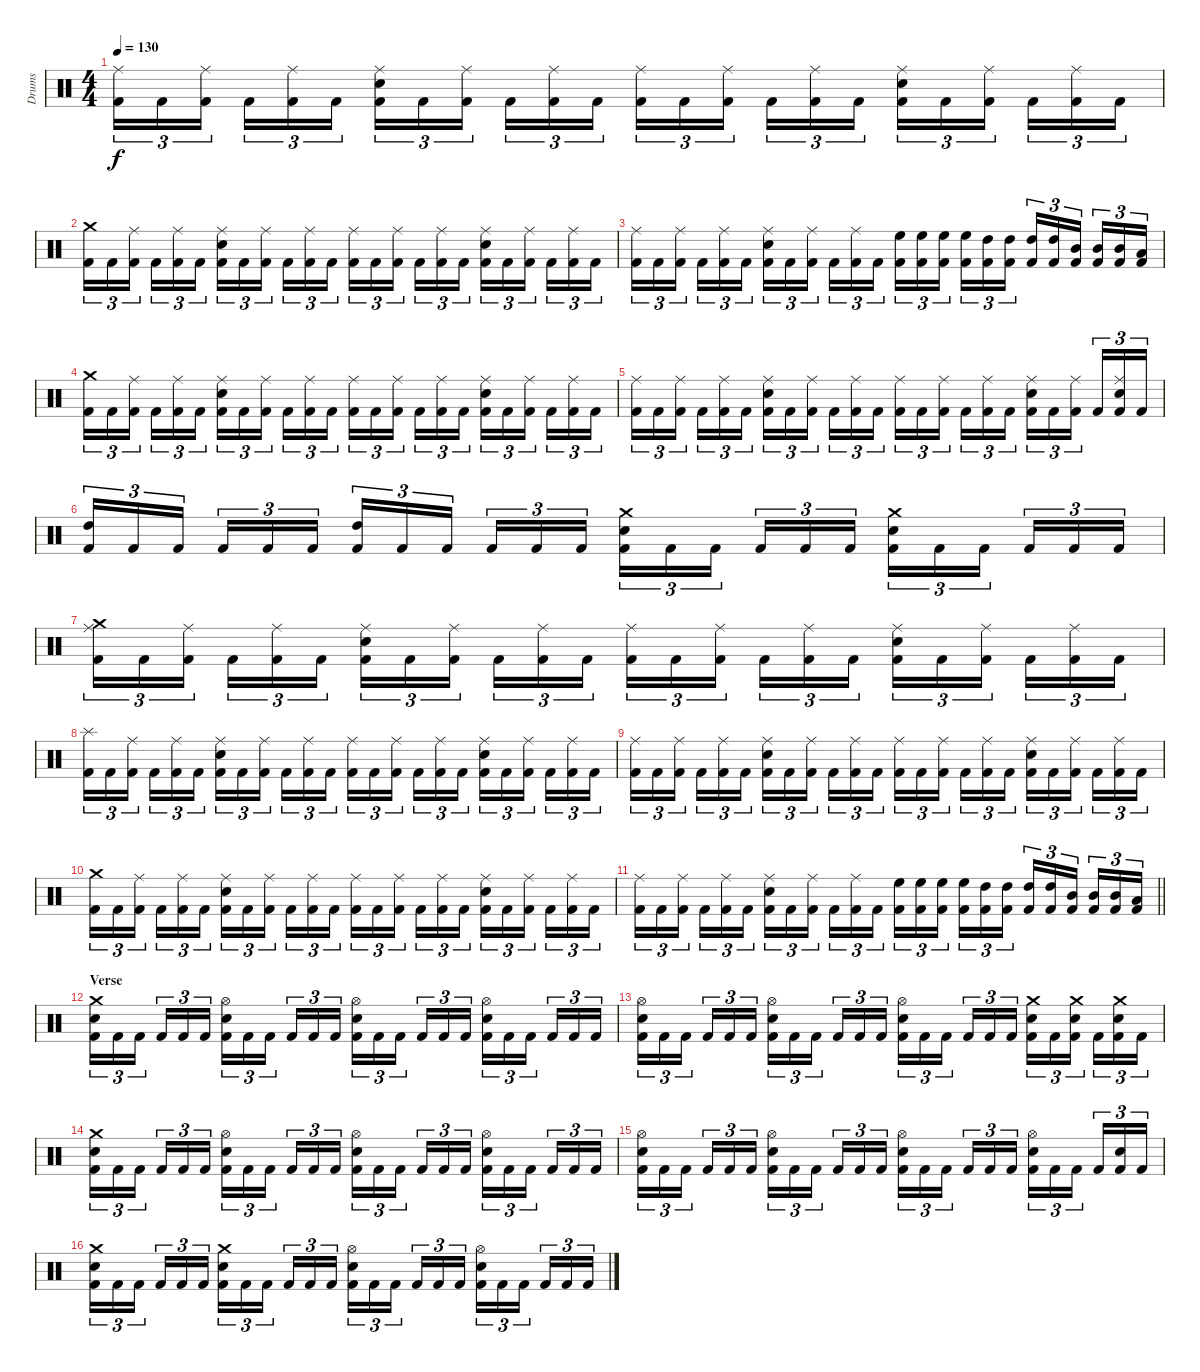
\track ("Drums" "Drums") {instrument percussion}
\staff {score}
\articulation defaults
\ts (4 4)
\tempo 130
\clef neutral
\ks c
("Kick (hit) 2" "Ride (middle)").16{tu (3 2) dy f} "Kick (hit) 2".16{tu (3 2)} ("Kick (hit) 2" "Ride (middle)").16{tu (3 2)} "Kick (hit) 2".16{tu (3 2)} ("Kick (hit) 2" "Ride (middle)").16{tu (3 2)} "Kick (hit) 2".16{tu (3 2)} ("Kick (hit) 2" "Electric Snare (hit)" "Ride (middle)").16{tu (3 2)} "Kick (hit) 2".16{tu (3 2)} ("Kick (hit) 2" "Ride (middle)").16{tu (3 2)} "Kick (hit) 2".16{tu (3 2)} ("Kick (hit) 2" "Ride (middle)").16{tu (3 2)} "Kick (hit) 2".16{tu (3 2)} ("Kick (hit) 2" "Ride (middle)").16{tu (3 2)} "Kick (hit) 2".16{tu (3 2)} ("Kick (hit) 2" "Ride (middle)").16{tu (3 2)} "Kick (hit) 2".16{tu (3 2)} ("Kick (hit) 2" "Ride (middle)").16{tu (3 2)} "Kick (hit) 2".16{tu (3 2)} ("Kick (hit) 2" "Electric Snare (hit)" "Ride (middle)").16{tu (3 2)} "Kick (hit) 2".16{tu (3 2)} ("Kick (hit) 2" "Ride (middle)").16{tu (3 2)} "Kick (hit) 2".16{tu (3 2)} ("Kick (hit) 2" "Ride (middle)").16{tu (3 2)} "Kick (hit) 2".16{tu (3 2)} |
("Kick (hit) 2" "Crash medium (hit)").16{tu (3 2)} "Kick (hit) 2".16{tu (3 2)} ("Kick (hit) 2" "Ride (middle)").16{tu (3 2)} "Kick (hit) 2".16{tu (3 2)} ("Kick (hit) 2" "Ride (middle)").16{tu (3 2)} "Kick (hit) 2".16{tu (3 2)} ("Kick (hit) 2" "Electric Snare (hit)" "Ride (middle)").16{tu (3 2)} "Kick (hit) 2".16{tu (3 2)} ("Kick (hit) 2" "Ride (middle)").16{tu (3 2)} "Kick (hit) 2".16{tu (3 2)} ("Kick (hit) 2" "Ride (middle)").16{tu (3 2)} "Kick (hit) 2".16{tu (3 2)} ("Kick (hit) 2" "Ride (middle)").16{tu (3 2)} "Kick (hit) 2".16{tu (3 2)} ("Kick (hit) 2" "Ride (middle)").16{tu (3 2)} "Kick (hit) 2".16{tu (3 2)} ("Kick (hit) 2" "Ride (middle)").16{tu (3 2)} "Kick (hit) 2".16{tu (3 2)} ("Kick (hit) 2" "Electric Snare (hit)" "Ride (middle)").16{tu (3 2)} "Kick (hit) 2".16{tu (3 2)} ("Kick (hit) 2" "Ride (middle)").16{tu (3 2)} "Kick (hit) 2".16{tu (3 2)} ("Kick (hit) 2" "Ride (middle)").16{tu (3 2)} "Kick (hit) 2".16{tu (3 2)} |
("Kick (hit) 2" "Ride (middle)").16{tu (3 2)} "Kick (hit) 2".16{tu (3 2)} ("Kick (hit) 2" "Ride (middle)").16{tu (3 2)} "Kick (hit) 2".16{tu (3 2)} ("Kick (hit) 2" "Ride (middle)").16{tu (3 2)} "Kick (hit) 2".16{tu (3 2)} ("Kick (hit) 2" "Electric Snare (hit)" "Ride (middle)").16{tu (3 2)} "Kick (hit) 2".16{tu (3 2)} ("Kick (hit) 2" "Ride (middle)").16{tu (3 2)} "Kick (hit) 2".16{tu (3 2)} ("Kick (hit) 2" "Ride (middle)").16{tu (3 2)} "Kick (hit) 2".16{tu (3 2)} ("Kick (hit) 2" "High Floor Tom (hit)").16{tu (3 2)} ("Kick (hit) 2" "High Floor Tom (hit)").16{tu (3 2)} ("Kick (hit) 2" "High Floor Tom (hit)").16{tu (3 2)} ("Kick (hit) 2" "High Floor Tom (hit)").16{tu (3 2)} ("Kick (hit) 2" "High Tom (hit)").16{tu (3 2)} ("Kick (hit) 2" "High Tom (hit)").16{tu (3 2)} ("Kick (hit) 2" "High Tom (hit)").16{tu (3 2)} ("Kick (hit) 2" "High Tom (hit)").16{tu (3 2)} ("Kick (hit) 2" "Mid Tom (hit)").16{tu (3 2)} ("Kick (hit) 2" "Mid Tom (hit)").16{tu (3 2)} ("Kick (hit) 2" "Mid Tom (hit)").16{tu (3 2)} ("Kick (hit) 2" "Low Tom (hit)").16{tu (3 2)} |
("Kick (hit) 2" "Crash medium (hit)").16{tu (3 2)} "Kick (hit) 2".16{tu (3 2)} ("Kick (hit) 2" "Ride (middle)").16{tu (3 2)} "Kick (hit) 2".16{tu (3 2)} ("Kick (hit) 2" "Ride (middle)").16{tu (3 2)} "Kick (hit) 2".16{tu (3 2)} ("Kick (hit) 2" "Electric Snare (hit)" "Ride (middle)").16{tu (3 2)} "Kick (hit) 2".16{tu (3 2)} ("Kick (hit) 2" "Ride (middle)").16{tu (3 2)} "Kick (hit) 2".16{tu (3 2)} ("Kick (hit) 2" "Ride (middle)").16{tu (3 2)} "Kick (hit) 2".16{tu (3 2)} ("Kick (hit) 2" "Ride (middle)").16{tu (3 2)} "Kick (hit) 2".16{tu (3 2)} ("Kick (hit) 2" "Ride (middle)").16{tu (3 2)} "Kick (hit) 2".16{tu (3 2)} ("Kick (hit) 2" "Ride (middle)").16{tu (3 2)} "Kick (hit) 2".16{tu (3 2)} ("Kick (hit) 2" "Electric Snare (hit)" "Ride (middle)").16{tu (3 2)} "Kick (hit) 2".16{tu (3 2)} ("Kick (hit) 2" "Ride (middle)").16{tu (3 2)} "Kick (hit) 2".16{tu (3 2)} ("Kick (hit) 2" "Ride (middle)").16{tu (3 2)} "Kick (hit) 2".16{tu (3 2)} |
("Kick (hit) 2" "Ride (middle)").16{tu (3 2)} "Kick (hit) 2".16{tu (3 2)} ("Kick (hit) 2" "Ride (middle)").16{tu (3 2)} "Kick (hit) 2".16{tu (3 2)} ("Kick (hit) 2" "Ride (middle)").16{tu (3 2)} "Kick (hit) 2".16{tu (3 2)} ("Kick (hit) 2" "Electric Snare (hit)" "Ride (middle)").16{tu (3 2)} "Kick (hit) 2".16{tu (3 2)} ("Kick (hit) 2" "Ride (middle)").16{tu (3 2)} "Kick (hit) 2".16{tu (3 2)} ("Kick (hit) 2" "Ride (middle)").16{tu (3 2)} "Kick (hit) 2".16{tu (3 2)} ("Kick (hit) 2" "Ride (middle)").16{tu (3 2)} "Kick (hit) 2".16{tu (3 2)} ("Kick (hit) 2" "Ride (middle)").16{tu (3 2)} "Kick (hit) 2".16{tu (3 2)} ("Kick (hit) 2" "Ride (middle)").16{tu (3 2)} "Kick (hit) 2".16{tu (3 2)} ("Kick (hit) 2" "Electric Snare (hit)" "Ride (middle)").16{tu (3 2)} "Kick (hit) 2".16{tu (3 2)} ("Kick (hit) 2" "Ride (middle)").16{tu (3 2)} "Kick (hit) 2".16{tu (3 2)} ("Kick (hit) 2" "Electric Snare (hit)" "Ride (middle)").16{tu (3 2)} "Kick (hit) 2".16{tu (3 2)} |
("Kick (hit) 2" "High Tom (hit)").16{tu (3 2)} "Kick (hit) 2".16{tu (3 2)} "Kick (hit) 2".16{tu (3 2)} "Kick (hit) 2".16{tu (3 2)} "Kick (hit) 2".16{tu (3 2)} "Kick (hit) 2".16{tu (3 2)} ("Kick (hit) 2" "High Tom (hit)").16{tu (3 2)} "Kick (hit) 2".16{tu (3 2)} "Kick (hit) 2".16{tu (3 2)} "Kick (hit) 2".16{tu (3 2)} "Kick (hit) 2".16{tu (3 2)} "Kick (hit) 2".16{tu (3 2)} ("Kick (hit) 2" "Electric Snare (hit)" "Crash medium (hit)").16{tu (3 2)} "Kick (hit) 2".16{tu (3 2)} "Kick (hit) 2".16{tu (3 2)} "Kick (hit) 2".16{tu (3 2)} "Kick (hit) 2".16{tu (3 2)} "Kick (hit) 2".16{tu (3 2)} ("Kick (hit) 2" "Electric Snare (hit)" "Crash medium (hit)").16{tu (3 2)} "Kick (hit) 2".16{tu (3 2)} "Kick (hit) 2".16{tu (3 2)} "Kick (hit) 2".16{tu (3 2)} "Kick (hit) 2".16{tu (3 2)} "Kick (hit) 2".16{tu (3 2)} |
("Kick (hit) 2" "Crash medium (hit)" "Ride (middle)").16{tu (3 2)} "Kick (hit) 2".16{tu (3 2)} ("Kick (hit) 2" "Ride (middle)").16{tu (3 2)} "Kick (hit) 2".16{tu (3 2)} ("Kick (hit) 2" "Ride (middle)").16{tu (3 2)} "Kick (hit) 2".16{tu (3 2)} ("Kick (hit) 2" "Electric Snare (hit)" "Ride (middle)").16{tu (3 2)} "Kick (hit) 2".16{tu (3 2)} ("Kick (hit) 2" "Ride (middle)").16{tu (3 2)} "Kick (hit) 2".16{tu (3 2)} ("Kick (hit) 2" "Ride (middle)").16{tu (3 2)} "Kick (hit) 2".16{tu (3 2)} ("Kick (hit) 2" "Ride (middle)").16{tu (3 2)} "Kick (hit) 2".16{tu (3 2)} ("Kick (hit) 2" "Ride (middle)").16{tu (3 2)} "Kick (hit) 2".16{tu (3 2)} ("Kick (hit) 2" "Ride (middle)").16{tu (3 2)} "Kick (hit) 2".16{tu (3 2)} ("Kick (hit) 2" "Electric Snare (hit)" "Ride (middle)").16{tu (3 2)} "Kick (hit) 2".16{tu (3 2)} ("Kick (hit) 2" "Ride (middle)").16{tu (3 2)} "Kick (hit) 2".16{tu (3 2)} ("Kick (hit) 2" "Ride (middle)").16{tu (3 2)} "Kick (hit) 2".16{tu (3 2)} |
("Kick (hit) 2" "Splash (hit)").16{tu (3 2)} "Kick (hit) 2".16{tu (3 2)} ("Kick (hit) 2" "Ride (middle)").16{tu (3 2)} "Kick (hit) 2".16{tu (3 2)} ("Kick (hit) 2" "Ride (middle)").16{tu (3 2)} "Kick (hit) 2".16{tu (3 2)} ("Kick (hit) 2" "Electric Snare (hit)" "Ride (middle)").16{tu (3 2)} "Kick (hit) 2".16{tu (3 2)} ("Kick (hit) 2" "Ride (middle)").16{tu (3 2)} "Kick (hit) 2".16{tu (3 2)} ("Kick (hit) 2" "Ride (middle)").16{tu (3 2)} "Kick (hit) 2".16{tu (3 2)} ("Kick (hit) 2" "Ride (middle)").16{tu (3 2)} "Kick (hit) 2".16{tu (3 2)} ("Kick (hit) 2" "Ride (middle)").16{tu (3 2)} "Kick (hit) 2".16{tu (3 2)} ("Kick (hit) 2" "Ride (middle)").16{tu (3 2)} "Kick (hit) 2".16{tu (3 2)} ("Kick (hit) 2" "Electric Snare (hit)" "Ride (middle)").16{tu (3 2)} "Kick (hit) 2".16{tu (3 2)} ("Kick (hit) 2" "Ride (middle)").16{tu (3 2)} "Kick (hit) 2".16{tu (3 2)} ("Kick (hit) 2" "Ride (middle)").16{tu (3 2)} "Kick (hit) 2".16{tu (3 2)} |
("Kick (hit) 2" "Ride (middle)").16{tu (3 2)} "Kick (hit) 2".16{tu (3 2)} ("Kick (hit) 2" "Ride (middle)").16{tu (3 2)} "Kick (hit) 2".16{tu (3 2)} ("Kick (hit) 2" "Ride (middle)").16{tu (3 2)} "Kick (hit) 2".16{tu (3 2)} ("Kick (hit) 2" "Electric Snare (hit)" "Ride (middle)").16{tu (3 2)} "Kick (hit) 2".16{tu (3 2)} ("Kick (hit) 2" "Ride (middle)").16{tu (3 2)} "Kick (hit) 2".16{tu (3 2)} ("Kick (hit) 2" "Ride (middle)").16{tu (3 2)} "Kick (hit) 2".16{tu (3 2)} ("Kick (hit) 2" "Ride (middle)").16{tu (3 2)} "Kick (hit) 2".16{tu (3 2)} ("Kick (hit) 2" "Ride (middle)").16{tu (3 2)} "Kick (hit) 2".16{tu (3 2)} ("Kick (hit) 2" "Ride (middle)").16{tu (3 2)} "Kick (hit) 2".16{tu (3 2)} ("Kick (hit) 2" "Electric Snare (hit)" "Ride (middle)").16{tu (3 2)} "Kick (hit) 2".16{tu (3 2)} ("Kick (hit) 2" "Ride (middle)").16{tu (3 2)} "Kick (hit) 2".16{tu (3 2)} ("Kick (hit) 2" "Ride (middle)").16{tu (3 2)} "Kick (hit) 2".16{tu (3 2)} |
("Kick (hit) 2" "Crash medium (hit)").16{tu (3 2)} "Kick (hit) 2".16{tu (3 2)} ("Kick (hit) 2" "Ride (middle)").16{tu (3 2)} "Kick (hit) 2".16{tu (3 2)} ("Kick (hit) 2" "Ride (middle)").16{tu (3 2)} "Kick (hit) 2".16{tu (3 2)} ("Kick (hit) 2" "Electric Snare (hit)" "Ride (middle)").16{tu (3 2)} "Kick (hit) 2".16{tu (3 2)} ("Kick (hit) 2" "Ride (middle)").16{tu (3 2)} "Kick (hit) 2".16{tu (3 2)} ("Kick (hit) 2" "Ride (middle)").16{tu (3 2)} "Kick (hit) 2".16{tu (3 2)} ("Kick (hit) 2" "Ride (middle)").16{tu (3 2)} "Kick (hit) 2".16{tu (3 2)} ("Kick (hit) 2" "Ride (middle)").16{tu (3 2)} "Kick (hit) 2".16{tu (3 2)} ("Kick (hit) 2" "Ride (middle)").16{tu (3 2)} "Kick (hit) 2".16{tu (3 2)} ("Kick (hit) 2" "Electric Snare (hit)" "Ride (middle)").16{tu (3 2)} "Kick (hit) 2".16{tu (3 2)} ("Kick (hit) 2" "Ride (middle)").16{tu (3 2)} "Kick (hit) 2".16{tu (3 2)} ("Kick (hit) 2" "Ride (middle)").16{tu (3 2)} "Kick (hit) 2".16{tu (3 2)} |
\barLineRight lightlight
("Kick (hit) 2" "Ride (middle)").16{tu (3 2)} "Kick (hit) 2".16{tu (3 2)} ("Kick (hit) 2" "Ride (middle)").16{tu (3 2)} "Kick (hit) 2".16{tu (3 2)} ("Kick (hit) 2" "Ride (middle)").16{tu (3 2)} "Kick (hit) 2".16{tu (3 2)} ("Kick (hit) 2" "Electric Snare (hit)" "Ride (middle)").16{tu (3 2)} "Kick (hit) 2".16{tu (3 2)} ("Kick (hit) 2" "Ride (middle)").16{tu (3 2)} "Kick (hit) 2".16{tu (3 2)} ("Kick (hit) 2" "Ride (middle)").16{tu (3 2)} "Kick (hit) 2".16{tu (3 2)} ("Kick (hit) 2" "High Floor Tom (hit)").16{tu (3 2)} ("Kick (hit) 2" "High Floor Tom (hit)").16{tu (3 2)} ("Kick (hit) 2" "High Floor Tom (hit)").16{tu (3 2)} ("Kick (hit) 2" "High Floor Tom (hit)").16{tu (3 2)} ("Kick (hit) 2" "High Tom (hit)").16{tu (3 2)} ("Kick (hit) 2" "High Tom (hit)").16{tu (3 2)} ("Kick (hit) 2" "High Tom (hit)").16{tu (3 2)} ("Kick (hit) 2" "High Tom (hit)").16{tu (3 2)} ("Kick (hit) 2" "Mid Tom (hit)").16{tu (3 2)} ("Kick (hit) 2" "Mid Tom (hit)").16{tu (3 2)} ("Kick (hit) 2" "Mid Tom (hit)").16{tu (3 2)} ("Kick (hit) 2" "Low Tom (hit)").16{tu (3 2)} |
\section ("" "Verse")
("Kick (hit) 2" "Electric Snare (hit)" "Crash medium (hit)").16{tu (3 2)} "Kick (hit) 2".16{tu (3 2)} "Kick (hit) 2".16{tu (3 2)} "Kick (hit) 2".16{tu (3 2)} "Kick (hit) 2".16{tu (3 2)} "Kick (hit) 2".16{tu (3 2)} ("Kick (hit) 2" "Electric Snare (hit)" "Hi-Hat (open)").16{tu (3 2)} "Kick (hit) 2".16{tu (3 2)} "Kick (hit) 2".16{tu (3 2)} "Kick (hit) 2".16{tu (3 2)} "Kick (hit) 2".16{tu (3 2)} "Kick (hit) 2".16{tu (3 2)} ("Kick (hit) 2" "Electric Snare (hit)" "Hi-Hat (open)").16{tu (3 2)} "Kick (hit) 2".16{tu (3 2)} "Kick (hit) 2".16{tu (3 2)} "Kick (hit) 2".16{tu (3 2)} "Kick (hit) 2".16{tu (3 2)} "Kick (hit) 2".16{tu (3 2)} ("Kick (hit) 2" "Electric Snare (hit)" "Hi-Hat (open)").16{tu (3 2)} "Kick (hit) 2".16{tu (3 2)} "Kick (hit) 2".16{tu (3 2)} "Kick (hit) 2".16{tu (3 2)} "Kick (hit) 2".16{tu (3 2)} "Kick (hit) 2".16{tu (3 2)} |
("Kick (hit) 2" "Electric Snare (hit)" "Hi-Hat (open)").16{tu (3 2)} "Kick (hit) 2".16{tu (3 2)} "Kick (hit) 2".16{tu (3 2)} "Kick (hit) 2".16{tu (3 2)} "Kick (hit) 2".16{tu (3 2)} "Kick (hit) 2".16{tu (3 2)} ("Kick (hit) 2" "Electric Snare (hit)" "Hi-Hat (open)").16{tu (3 2)} "Kick (hit) 2".16{tu (3 2)} "Kick (hit) 2".16{tu (3 2)} "Kick (hit) 2".16{tu (3 2)} "Kick (hit) 2".16{tu (3 2)} "Kick (hit) 2".16{tu (3 2)} ("Kick (hit) 2" "Electric Snare (hit)" "Hi-Hat (open)").16{tu (3 2)} "Kick (hit) 2".16{tu (3 2)} "Kick (hit) 2".16{tu (3 2)} "Kick (hit) 2".16{tu (3 2)} "Kick (hit) 2".16{tu (3 2)} "Kick (hit) 2".16{tu (3 2)} ("Kick (hit) 2" "Electric Snare (hit)" "Crash medium (hit)").16{tu (3 2)} "Kick (hit) 2".16{tu (3 2)} ("Kick (hit) 2" "Electric Snare (hit)" "Crash medium (hit)").16{tu (3 2)} "Kick (hit) 2".16{tu (3 2)} ("Kick (hit) 2" "Electric Snare (hit)" "Crash medium (hit)").16{tu (3 2)} "Kick (hit) 2".16{tu (3 2)} |
("Kick (hit) 2" "Electric Snare (hit)" "Crash medium (hit)").16{tu (3 2)} "Kick (hit) 2".16{tu (3 2)} "Kick (hit) 2".16{tu (3 2)} "Kick (hit) 2".16{tu (3 2)} "Kick (hit) 2".16{tu (3 2)} "Kick (hit) 2".16{tu (3 2)} ("Kick (hit) 2" "Electric Snare (hit)" "Hi-Hat (open)").16{tu (3 2)} "Kick (hit) 2".16{tu (3 2)} "Kick (hit) 2".16{tu (3 2)} "Kick (hit) 2".16{tu (3 2)} "Kick (hit) 2".16{tu (3 2)} "Kick (hit) 2".16{tu (3 2)} ("Kick (hit) 2" "Electric Snare (hit)" "Hi-Hat (open)").16{tu (3 2)} "Kick (hit) 2".16{tu (3 2)} "Kick (hit) 2".16{tu (3 2)} "Kick (hit) 2".16{tu (3 2)} "Kick (hit) 2".16{tu (3 2)} "Kick (hit) 2".16{tu (3 2)} ("Kick (hit) 2" "Electric Snare (hit)" "Hi-Hat (open)").16{tu (3 2)} "Kick (hit) 2".16{tu (3 2)} "Kick (hit) 2".16{tu (3 2)} "Kick (hit) 2".16{tu (3 2)} "Kick (hit) 2".16{tu (3 2)} "Kick (hit) 2".16{tu (3 2)} |
("Kick (hit) 2" "Electric Snare (hit)" "Hi-Hat (open)").16{tu (3 2)} "Kick (hit) 2".16{tu (3 2)} "Kick (hit) 2".16{tu (3 2)} "Kick (hit) 2".16{tu (3 2)} "Kick (hit) 2".16{tu (3 2)} "Kick (hit) 2".16{tu (3 2)} ("Kick (hit) 2" "Electric Snare (hit)" "Hi-Hat (open)").16{tu (3 2)} "Kick (hit) 2".16{tu (3 2)} "Kick (hit) 2".16{tu (3 2)} "Kick (hit) 2".16{tu (3 2)} "Kick (hit) 2".16{tu (3 2)} "Kick (hit) 2".16{tu (3 2)} ("Kick (hit) 2" "Electric Snare (hit)" "Hi-Hat (open)").16{tu (3 2)} "Kick (hit) 2".16{tu (3 2)} "Kick (hit) 2".16{tu (3 2)} "Kick (hit) 2".16{tu (3 2)} "Kick (hit) 2".16{tu (3 2)} "Kick (hit) 2".16{tu (3 2)} ("Kick (hit) 2" "Electric Snare (hit)" "Hi-Hat (open)").16{tu (3 2)} "Kick (hit) 2".16{tu (3 2)} "Kick (hit) 2".16{tu (3 2)} "Kick (hit) 2".16{tu (3 2)} ("Kick (hit) 2" "Electric Snare (hit)").16{tu (3 2)} "Kick (hit) 2".16{tu (3 2)} |
("Kick (hit) 2" "Electric Snare (hit)" "Crash medium (hit)").16{tu (3 2)} "Kick (hit) 2".16{tu (3 2)} "Kick (hit) 2".16{tu (3 2)} "Kick (hit) 2".16{tu (3 2)} "Kick (hit) 2".16{tu (3 2)} "Kick (hit) 2".16{tu (3 2)} ("Kick (hit) 2" "Electric Snare (hit)" "Crash medium (hit)").16{tu (3 2)} "Kick (hit) 2".16{tu (3 2)} "Kick (hit) 2".16{tu (3 2)} "Kick (hit) 2".16{tu (3 2)} "Kick (hit) 2".16{tu (3 2)} "Kick (hit) 2".16{tu (3 2)} ("Kick (hit) 2" "Electric Snare (hit)" "Hi-Hat (open)").16{tu (3 2)} "Kick (hit) 2".16{tu (3 2)} "Kick (hit) 2".16{tu (3 2)} "Kick (hit) 2".16{tu (3 2)} "Kick (hit) 2".16{tu (3 2)} "Kick (hit) 2".16{tu (3 2)} ("Kick (hit) 2" "Electric Snare (hit)" "Hi-Hat (open)").16{tu (3 2)} "Kick (hit) 2".16{tu (3 2)} "Kick (hit) 2".16{tu (3 2)} "Kick (hit) 2".16{tu (3 2)} "Kick (hit) 2".16{tu (3 2)} "Kick (hit) 2".16{tu (3 2)}
